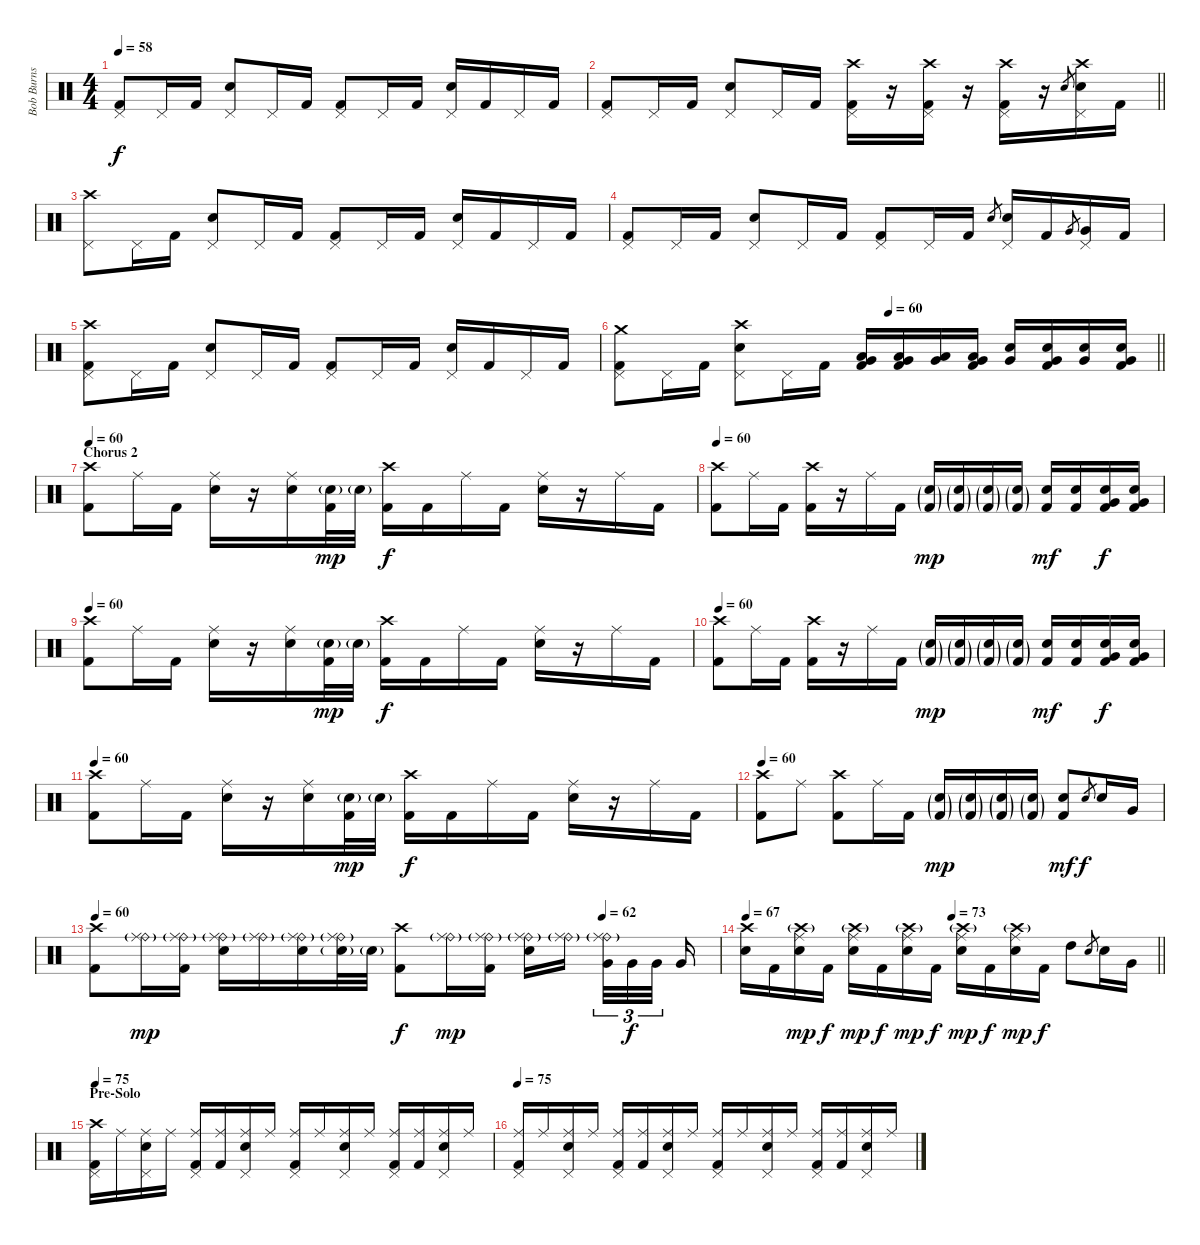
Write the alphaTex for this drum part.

\track ("Bob Burns (drums and percussion)" "Bob Burns ") {instrument percussion}
\staff {score}
\articulation defaults
\ts (4 4)
\tempo 58
\clef neutral
\ks c
("Pedal Hi-Hat (hit)" "Kick (hit) 2").8{dy f} "Pedal Hi-Hat (hit)".16 "Kick (hit) 2".16 ("Pedal Hi-Hat (hit)" "Electric Snare (hit)").8 "Pedal Hi-Hat (hit)".16 "Kick (hit) 2".16 ("Pedal Hi-Hat (hit)" "Kick (hit) 2").8 "Pedal Hi-Hat (hit)".16 "Kick (hit) 2".16 ("Pedal Hi-Hat (hit)" "Electric Snare (hit)").16 "Kick (hit) 2".16 "Pedal Hi-Hat (hit)".16 "Kick (hit) 2".16 |
\barLineRight lightlight
("Pedal Hi-Hat (hit)" "Kick (hit) 2").8 "Pedal Hi-Hat (hit)".16 "Kick (hit) 2".16 ("Pedal Hi-Hat (hit)" "Electric Snare (hit)").8 "Pedal Hi-Hat (hit)".16 "Kick (hit) 2".16 ("Crash high (hit)" "Pedal Hi-Hat (hit)" "Kick (hit) 2").16 r.16 ("Crash high (hit)" "Pedal Hi-Hat (hit)" "Kick (hit) 2").16 r.16 ("Crash high (hit)" "Pedal Hi-Hat (hit)" "Kick (hit) 2").16 r.16 "Electric Snare (hit)".8{gr} ("Crash high (hit)" "Pedal Hi-Hat (hit)" "Electric Snare (hit)").16 "Kick (hit) 2".16 |
("Crash high (hit)" "Pedal Hi-Hat (hit)").8 "Pedal Hi-Hat (hit)".16 "Kick (hit) 2".16 ("Pedal Hi-Hat (hit)" "Electric Snare (hit)").8 "Pedal Hi-Hat (hit)".16 "Kick (hit) 2".16 ("Pedal Hi-Hat (hit)" "Kick (hit) 2").8 "Pedal Hi-Hat (hit)".16 "Kick (hit) 2".16 ("Pedal Hi-Hat (hit)" "Electric Snare (hit)").16 "Kick (hit) 2".16 "Pedal Hi-Hat (hit)".16 "Kick (hit) 2".16 |
("Pedal Hi-Hat (hit)" "Kick (hit) 2").8 "Pedal Hi-Hat (hit)".16 "Kick (hit) 2".16 ("Pedal Hi-Hat (hit)" "Electric Snare (hit)").8 "Pedal Hi-Hat (hit)".16 "Kick (hit) 2".16 ("Pedal Hi-Hat (hit)" "Kick (hit) 2").8 "Pedal Hi-Hat (hit)".16 "Kick (hit) 2".16 "Electric Snare (hit)".8{gr} ("Pedal Hi-Hat (hit)" "Electric Snare (hit)").16 "Kick (hit) 2".16 "Very Low Tom (hit)".8{gr} ("Pedal Hi-Hat (hit)" "Very Low Tom (hit)").16 "Kick (hit) 2".16 |
("Crash high (hit)" "Pedal Hi-Hat (hit)" "Kick (hit) 2").8 "Pedal Hi-Hat (hit)".16 "Kick (hit) 2".16 ("Pedal Hi-Hat (hit)" "Electric Snare (hit)").8 "Pedal Hi-Hat (hit)".16 "Kick (hit) 2".16 ("Pedal Hi-Hat (hit)" "Kick (hit) 2").8 "Pedal Hi-Hat (hit)".16 "Kick (hit) 2".16 ("Pedal Hi-Hat (hit)" "Electric Snare (hit)").16 "Kick (hit) 2".16 "Pedal Hi-Hat (hit)".16 "Kick (hit) 2".16 |
\tempo (60 0.5)
\barLineRight lightlight
("Crash medium (hit)" "Pedal Hi-Hat (hit)" "Kick (hit) 2").8 "Pedal Hi-Hat (hit)".16 "Kick (hit) 2".16 ("Crash high (hit)" "Pedal Hi-Hat (hit)" "Electric Snare (hit)").8 "Pedal Hi-Hat (hit)".16 "Kick (hit) 2".16 ("Low Tom (hit)" "Very Low Tom (hit)" "Kick (hit) 2").16 ("Low Tom (hit)" "Very Low Tom (hit)" "Kick (hit) 2").16 ("Low Tom (hit)" "Very Low Tom (hit)").16 ("Low Tom (hit)" "Very Low Tom (hit)" "Kick (hit) 2").16 ("Electric Snare (hit)" "Very Low Tom (hit)").16 ("Electric Snare (hit)" "Very Low Tom (hit)" "Kick (hit) 2").16 ("Electric Snare (hit)" "Very Low Tom (hit)").16 ("Electric Snare (hit)" "Very Low Tom (hit)" "Kick (hit) 2").16 |
\section ("" "Chorus 2")
\tempo 60
("Crash high (hit)" "Kick (hit) 2").8 "Ride (middle)".16 "Kick (hit) 2".16 ("Ride (middle)" "Electric Snare (hit)").16 r.16 ("Ride (middle)" "Electric Snare (hit)").16 ("Electric Snare (hit)"{g} "Kick (hit) 2").32{dy mp} "Electric Snare (hit)"{g}.32 ("Crash high (hit)" "Kick (hit) 2").16{dy f} "Kick (hit) 2".16 "Ride (middle)".16 "Kick (hit) 2".16 ("Ride (middle)" "Electric Snare (hit)").16 r.16 "Ride (middle)".16 "Kick (hit) 2".16 |
\tempo 60
("Crash high (hit)" "Kick (hit) 2").8 "Ride (middle)".16 "Kick (hit) 2".16 ("Crash high (hit)" "Kick (hit) 2").16 r.16 "Ride (middle)".16 "Kick (hit) 2".16 ("Electric Snare (hit)"{g} "Kick (hit) 2"{g}).16{dy mp} ("Electric Snare (hit)"{g} "Kick (hit) 2"{g}).16 ("Electric Snare (hit)"{g} "Kick (hit) 2"{g}).16 ("Electric Snare (hit)"{g} "Kick (hit) 2"{g}).16 ("Electric Snare (hit)" "Kick (hit) 2").16{dy mf} ("Electric Snare (hit)" "Kick (hit) 2").16 ("Very Low Tom (hit)" "Electric Snare (hit)" "Kick (hit) 2").16{dy f} ("Very Low Tom (hit)" "Electric Snare (hit)" "Kick (hit) 2").16 |
\tempo 60
("Crash high (hit)" "Kick (hit) 2").8 "Ride (middle)".16 "Kick (hit) 2".16 ("Ride (middle)" "Electric Snare (hit)").16 r.16 ("Ride (middle)" "Electric Snare (hit)").16 ("Electric Snare (hit)"{g} "Kick (hit) 2").32{dy mp} "Electric Snare (hit)"{g}.32 ("Crash high (hit)" "Kick (hit) 2").16{dy f} "Kick (hit) 2".16 "Ride (middle)".16 "Kick (hit) 2".16 ("Ride (middle)" "Electric Snare (hit)").16 r.16 "Ride (middle)".16 "Kick (hit) 2".16 |
\tempo 60
("Crash high (hit)" "Kick (hit) 2").8 "Ride (middle)".16 "Kick (hit) 2".16 ("Crash high (hit)" "Kick (hit) 2").16 r.16 "Ride (middle)".16 "Kick (hit) 2".16 ("Electric Snare (hit)"{g} "Kick (hit) 2"{g}).16{dy mp} ("Electric Snare (hit)"{g} "Kick (hit) 2"{g}).16 ("Electric Snare (hit)"{g} "Kick (hit) 2"{g}).16 ("Electric Snare (hit)"{g} "Kick (hit) 2"{g}).16 ("Electric Snare (hit)" "Kick (hit) 2").16{dy mf} ("Electric Snare (hit)" "Kick (hit) 2").16 ("Very Low Tom (hit)" "Electric Snare (hit)" "Kick (hit) 2").16{dy f} ("Very Low Tom (hit)" "Electric Snare (hit)" "Kick (hit) 2").16 |
\tempo 60
("Crash high (hit)" "Kick (hit) 2").8 "Ride (middle)".16 "Kick (hit) 2".16 ("Ride (middle)" "Electric Snare (hit)").16 r.16 ("Ride (middle)" "Electric Snare (hit)").16 ("Electric Snare (hit)"{g} "Kick (hit) 2").32{dy mp} "Electric Snare (hit)"{g}.32 ("Crash high (hit)" "Kick (hit) 2").16{dy f} "Kick (hit) 2".16 "Ride (middle)".16 "Kick (hit) 2".16 ("Ride (middle)" "Electric Snare (hit)").16 r.16 "Ride (middle)".16 "Kick (hit) 2".16 |
\tempo 60
("Crash high (hit)" "Kick (hit) 2").8 "Ride (middle)".8 ("Crash high (hit)" "Kick (hit) 2").8 "Ride (middle)".16 "Kick (hit) 2".16 ("Electric Snare (hit)"{g} "Kick (hit) 2"{g}).16{dy mp} ("Electric Snare (hit)"{g} "Kick (hit) 2"{g}).16 ("Electric Snare (hit)"{g} "Kick (hit) 2"{g}).16 ("Electric Snare (hit)"{g} "Kick (hit) 2"{g}).16 ("Electric Snare (hit)" "Kick (hit) 2").8{dy mf} "Electric Snare (hit)".8{gr dy f} "Electric Snare (hit)".16 "Very Low Tom (hit)".16 |
\tempo 60
\tempo (62 0.8125)
("Crash high (hit)" "Kick (hit) 2").8 ("Ride (bell)"{g} "Ride (middle)").16{dy mp} ("Ride (bell)"{g} "Ride (middle)" "Kick (hit) 2").16 ("Ride (bell)"{g} "Ride (middle)" "Electric Snare (hit)").16 ("Ride (bell)"{g} "Ride (middle)").16 ("Ride (bell)"{g} "Ride (middle)" "Electric Snare (hit)").16 ("Ride (bell)"{g} "Ride (middle)" "Electric Snare (hit)"{g}).32 "Electric Snare (hit)"{g}.32 ("Crash high (hit)" "Kick (hit) 2").8{dy f} ("Ride (bell)"{g} "Ride (middle)").16{dy mp} ("Ride (bell)"{g} "Ride (middle)" "Kick (hit) 2").16 ("Ride (bell)"{g} "Ride (middle)" "Electric Snare (hit)").16 ("Ride (bell)"{g} "Ride (middle)").16{beam splitsecondary} ("Ride (bell)"{g} "Ride (middle)" "Very Low Tom (hit)").32{tu (3 2)} "Very Low Tom (hit)".32{tu (3 2) dy f} "Very Low Tom (hit)".32{tu (3 2) beam splitsecondary} "Very Low Tom (hit)".16 |
\tempo 67
\tempo (73 0.5)
\barLineRight lightlight
("Crash high (hit)" "Electric Snare (hit)").16 "Kick (hit) 2".16 ("Crash high (hit)"{g} "Ride (middle)" "Electric Snare (hit)").16{dy mp} "Kick (hit) 2".16{dy f} ("Crash high (hit)"{g} "Ride (middle)" "Electric Snare (hit)").16{dy mp} "Kick (hit) 2".16{dy f} ("Crash high (hit)"{g} "Ride (middle)" "Electric Snare (hit)").16{dy mp} "Kick (hit) 2".16{dy f} ("Crash high (hit)"{g} "Ride (middle)" "Electric Snare (hit)").16{dy mp} "Kick (hit) 2".16{dy f} ("Crash high (hit)"{g} "Ride (middle)" "Electric Snare (hit)").16{dy mp} "Kick (hit) 2".16{dy f} "High Tom (hit)".8 "Electric Snare (hit)".8{gr} "Electric Snare (hit)".16 "Very Low Tom (hit)".16 |
\section ("" "Pre-Solo")
\tempo 75
("Crash high (hit)" "Pedal Hi-Hat (hit)" "Kick (hit) 2").16 "Ride (middle)".16 ("Ride (middle)" "Pedal Hi-Hat (hit)" "Electric Snare (hit)").16 "Ride (middle)".16 ("Ride (middle)" "Pedal Hi-Hat (hit)" "Kick (hit) 2").16 ("Ride (middle)" "Kick (hit) 2").16 ("Ride (middle)" "Pedal Hi-Hat (hit)" "Electric Snare (hit)").16 "Ride (middle)".16 ("Ride (middle)" "Pedal Hi-Hat (hit)" "Kick (hit) 2").16 "Ride (middle)".16 ("Ride (middle)" "Pedal Hi-Hat (hit)" "Electric Snare (hit)").16 "Ride (middle)".16 ("Ride (middle)" "Pedal Hi-Hat (hit)" "Kick (hit) 2").16 ("Ride (middle)" "Kick (hit) 2").16 ("Ride (middle)" "Pedal Hi-Hat (hit)" "Electric Snare (hit)").16 "Ride (middle)".16 |
\tempo 75
("Ride (middle)" "Pedal Hi-Hat (hit)" "Kick (hit) 2").16 "Ride (middle)".16 ("Ride (middle)" "Pedal Hi-Hat (hit)" "Electric Snare (hit)").16 "Ride (middle)".16 ("Ride (middle)" "Pedal Hi-Hat (hit)" "Kick (hit) 2").16 ("Ride (middle)" "Kick (hit) 2").16 ("Ride (middle)" "Pedal Hi-Hat (hit)" "Electric Snare (hit)").16 "Ride (middle)".16 ("Ride (middle)" "Pedal Hi-Hat (hit)" "Kick (hit) 2").16 "Ride (middle)".16 ("Ride (middle)" "Pedal Hi-Hat (hit)" "Electric Snare (hit)").16 "Ride (middle)".16 ("Ride (middle)" "Pedal Hi-Hat (hit)" "Kick (hit) 2").16 ("Ride (middle)" "Kick (hit) 2").16 ("Ride (middle)" "Pedal Hi-Hat (hit)" "Electric Snare (hit)").16 "Ride (middle)".16
